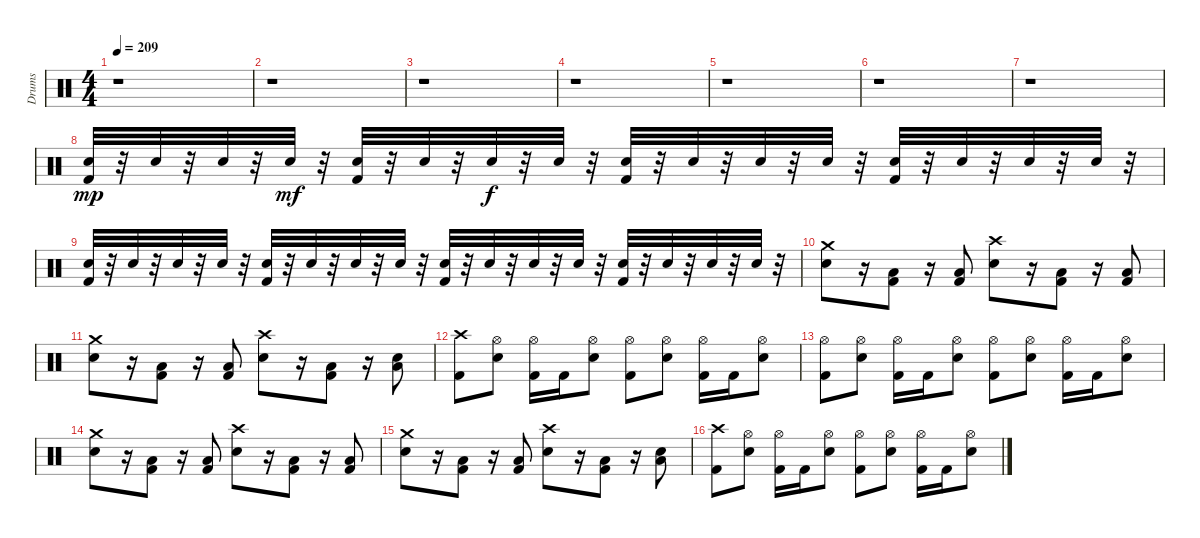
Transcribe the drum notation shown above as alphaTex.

\track ("Drums" "Drums") {instrument percussion}
\staff {score}
\articulation defaults
\ts (4 4)
\tempo 209
\clef neutral
\ks c
r.1{dy mp} |
r.1 |
r.1 |
r.1 |
r.1 |
r.1 |
r.1 |
("Electric Snare (hit)" "Kick (hit) 2").32 r.32 "Electric Snare (hit)".32 r.32 "Electric Snare (hit)".32 r.32 "Electric Snare (hit)".32{dy mf} r.32 ("Electric Snare (hit)" "Kick (hit) 2").32 r.32 "Electric Snare (hit)".32 r.32 "Electric Snare (hit)".32{dy f} r.32 "Electric Snare (hit)".32 r.32 ("Electric Snare (hit)" "Kick (hit) 2").32 r.32 "Electric Snare (hit)".32 r.32 "Electric Snare (hit)".32 r.32 "Electric Snare (hit)".32 r.32 ("Electric Snare (hit)" "Kick (hit) 2").32 r.32 "Electric Snare (hit)".32 r.32 "Electric Snare (hit)".32 r.32 "Electric Snare (hit)".32 r.32 |
("Electric Snare (hit)" "Kick (hit) 2").32 r.32 "Electric Snare (hit)".32 r.32 "Electric Snare (hit)".32 r.32 "Electric Snare (hit)".32 r.32 ("Electric Snare (hit)" "Kick (hit) 2").32 r.32 "Electric Snare (hit)".32 r.32 "Electric Snare (hit)".32 r.32 "Electric Snare (hit)".32 r.32 ("Electric Snare (hit)" "Kick (hit) 2").32 r.32 "Electric Snare (hit)".32 r.32 "Electric Snare (hit)".32 r.32 "Electric Snare (hit)".32 r.32 ("Electric Snare (hit)" "Kick (hit) 2").32 r.32 "Electric Snare (hit)".32 r.32 "Electric Snare (hit)".32 r.32 "Electric Snare (hit)".32 r.32 |
("Electric Snare (hit)" "Crash medium (hit)").8 r.16 ("Kick (hit) 2" "Low Floor Tom (hit)").8 r.16 ("Kick (hit) 2" "Low Floor Tom (hit)").8 ("Crash high (hit)" "Electric Snare (hit)").8 r.16 ("Kick (hit) 2" "Low Floor Tom (hit)").8 r.16 ("Kick (hit) 2" "Low Floor Tom (hit)").8 |
("Electric Snare (hit)" "Crash medium (hit)").8 r.16 ("Kick (hit) 2" "Low Floor Tom (hit)").8 r.16 ("Kick (hit) 2" "Low Floor Tom (hit)").8 ("Crash high (hit)" "Electric Snare (hit)").8 r.16 ("Kick (hit) 2" "Low Floor Tom (hit)").8 r.16 ("Low Floor Tom (hit)" "Electric Snare (hit)").8 |
("Crash high (hit)" "Kick (hit) 2").8 ("Hi-Hat (open)" "Electric Snare (hit)").8 ("Kick (hit) 2" "Hi-Hat (open)").16 "Kick (hit) 2".16 ("Hi-Hat (open)" "Electric Snare (hit)").8 ("Kick (hit) 2" "Hi-Hat (open)").8 ("Hi-Hat (open)" "Electric Snare (hit)").8 ("Kick (hit) 2" "Hi-Hat (open)").16 "Kick (hit) 2".16 ("Hi-Hat (open)" "Electric Snare (hit)").8 |
("Kick (hit) 2" "Hi-Hat (open)").8 ("Hi-Hat (open)" "Electric Snare (hit)").8 ("Kick (hit) 2" "Hi-Hat (open)").16 "Kick (hit) 2".16 ("Hi-Hat (open)" "Electric Snare (hit)").8 ("Kick (hit) 2" "Hi-Hat (open)").8 ("Hi-Hat (open)" "Electric Snare (hit)").8 ("Kick (hit) 2" "Hi-Hat (open)").16 "Kick (hit) 2".16 ("Hi-Hat (open)" "Electric Snare (hit)").8 |
("Electric Snare (hit)" "Crash medium (hit)").8 r.16 ("Kick (hit) 2" "Low Floor Tom (hit)").8 r.16 ("Kick (hit) 2" "Low Floor Tom (hit)").8 ("Crash high (hit)" "Electric Snare (hit)").8 r.16 ("Kick (hit) 2" "Low Floor Tom (hit)").8 r.16 ("Kick (hit) 2" "Low Floor Tom (hit)").8 |
("Electric Snare (hit)" "Crash medium (hit)").8 r.16 ("Kick (hit) 2" "Low Floor Tom (hit)").8 r.16 ("Kick (hit) 2" "Low Floor Tom (hit)").8 ("Crash high (hit)" "Electric Snare (hit)").8 r.16 ("Kick (hit) 2" "Low Floor Tom (hit)").8 r.16 ("Low Floor Tom (hit)" "Electric Snare (hit)").8 |
("Crash high (hit)" "Kick (hit) 2").8 ("Hi-Hat (open)" "Electric Snare (hit)").8 ("Kick (hit) 2" "Hi-Hat (open)").16 "Kick (hit) 2".16 ("Hi-Hat (open)" "Electric Snare (hit)").8 ("Kick (hit) 2" "Hi-Hat (open)").8 ("Hi-Hat (open)" "Electric Snare (hit)").8 ("Kick (hit) 2" "Hi-Hat (open)").16 "Kick (hit) 2".16 ("Hi-Hat (open)" "Electric Snare (hit)").8
